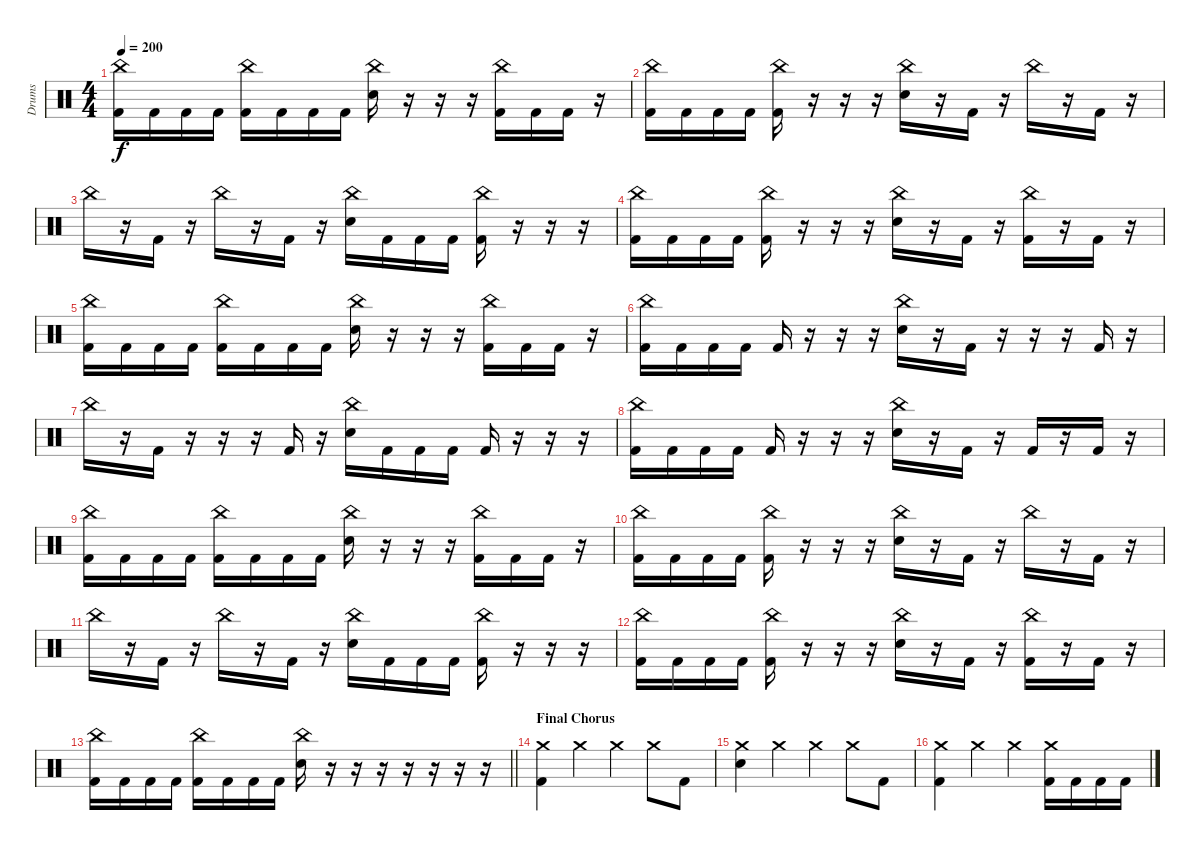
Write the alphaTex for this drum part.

\track ("Drums" "Drums") {instrument percussion}
\staff {score}
\articulation defaults
\ts (4 4)
\tempo 200
\clef neutral
\ks c
("China (hit)" "Kick (hit) 2").16{dy f} "Kick (hit) 2".16 "Kick (hit) 2".16 "Kick (hit) 2".16 ("China (hit)" "Kick (hit) 2").16 "Kick (hit) 2".16 "Kick (hit) 2".16 "Kick (hit) 2".16 ("China (hit)" "Electric Snare (hit)").16 r.16 r.16 r.16 ("China (hit)" "Kick (hit) 2").16 "Kick (hit) 2".16 "Kick (hit) 2".16 r.16 |
("China (hit)" "Kick (hit) 2").16 "Kick (hit) 2".16 "Kick (hit) 2".16 "Kick (hit) 2".16 ("China (hit)" "Kick (hit) 2").16 r.16 r.16 r.16 ("China (hit)" "Electric Snare (hit)").16 r.16 "Kick (hit) 2".16 r.16 "China (hit)".16 r.16 "Kick (hit) 2".16 r.16 |
"China (hit)".16 r.16 "Kick (hit) 2".16 r.16 "China (hit)".16 r.16 "Kick (hit) 2".16 r.16 ("China (hit)" "Electric Snare (hit)").16 "Kick (hit) 2".16 "Kick (hit) 2".16 "Kick (hit) 2".16 ("China (hit)" "Kick (hit) 2").16 r.16 r.16 r.16 |
("China (hit)" "Kick (hit) 2").16 "Kick (hit) 2".16 "Kick (hit) 2".16 "Kick (hit) 2".16 ("China (hit)" "Kick (hit) 2").16 r.16 r.16 r.16 ("China (hit)" "Electric Snare (hit)").16 r.16 "Kick (hit) 2".16 r.16 ("China (hit)" "Kick (hit) 2").16 r.16 "Kick (hit) 2".16 r.16 |
("China (hit)" "Kick (hit) 2").16 "Kick (hit) 2".16 "Kick (hit) 2".16 "Kick (hit) 2".16 ("China (hit)" "Kick (hit) 2").16 "Kick (hit) 2".16 "Kick (hit) 2".16 "Kick (hit) 2".16 ("China (hit)" "Electric Snare (hit)").16 r.16 r.16 r.16 ("China (hit)" "Kick (hit) 2").16 "Kick (hit) 2".16 "Kick (hit) 2".16 r.16 |
("China (hit)" "Kick (hit) 2").16 "Kick (hit) 2".16 "Kick (hit) 2".16 "Kick (hit) 2".16 "Kick (hit) 2".16 r.16 r.16 r.16 ("China (hit)" "Electric Snare (hit)").16 r.16 "Kick (hit) 2".16 r.16 r.16 r.16 "Kick (hit) 2".16 r.16 |
"China (hit)".16 r.16 "Kick (hit) 2".16 r.16 r.16 r.16 "Kick (hit) 2".16 r.16 ("China (hit)" "Electric Snare (hit)").16 "Kick (hit) 2".16 "Kick (hit) 2".16 "Kick (hit) 2".16 "Kick (hit) 2".16 r.16 r.16 r.16 |
("China (hit)" "Kick (hit) 2").16 "Kick (hit) 2".16 "Kick (hit) 2".16 "Kick (hit) 2".16 "Kick (hit) 2".16 r.16 r.16 r.16 ("China (hit)" "Electric Snare (hit)").16 r.16 "Kick (hit) 2".16 r.16 "Kick (hit) 2".16 r.16 "Kick (hit) 2".16 r.16 |
("China (hit)" "Kick (hit) 2").16 "Kick (hit) 2".16 "Kick (hit) 2".16 "Kick (hit) 2".16 ("China (hit)" "Kick (hit) 2").16 "Kick (hit) 2".16 "Kick (hit) 2".16 "Kick (hit) 2".16 ("China (hit)" "Electric Snare (hit)").16 r.16 r.16 r.16 ("China (hit)" "Kick (hit) 2").16 "Kick (hit) 2".16 "Kick (hit) 2".16 r.16 |
("China (hit)" "Kick (hit) 2").16 "Kick (hit) 2".16 "Kick (hit) 2".16 "Kick (hit) 2".16 ("China (hit)" "Kick (hit) 2").16 r.16 r.16 r.16 ("China (hit)" "Electric Snare (hit)").16 r.16 "Kick (hit) 2".16 r.16 "China (hit)".16 r.16 "Kick (hit) 2".16 r.16 |
"China (hit)".16 r.16 "Kick (hit) 2".16 r.16 "China (hit)".16 r.16 "Kick (hit) 2".16 r.16 ("China (hit)" "Electric Snare (hit)").16 "Kick (hit) 2".16 "Kick (hit) 2".16 "Kick (hit) 2".16 ("China (hit)" "Kick (hit) 2").16 r.16 r.16 r.16 |
("China (hit)" "Kick (hit) 2").16 "Kick (hit) 2".16 "Kick (hit) 2".16 "Kick (hit) 2".16 ("China (hit)" "Kick (hit) 2").16 r.16 r.16 r.16 ("China (hit)" "Electric Snare (hit)").16 r.16 "Kick (hit) 2".16 r.16 ("China (hit)" "Kick (hit) 2").16 r.16 "Kick (hit) 2".16 r.16 |
\barLineRight lightlight
("China (hit)" "Kick (hit) 2").16 "Kick (hit) 2".16 "Kick (hit) 2".16 "Kick (hit) 2".16 ("China (hit)" "Kick (hit) 2").16 "Kick (hit) 2".16 "Kick (hit) 2".16 "Kick (hit) 2".16 ("China (hit)" "Electric Snare (hit)").16 r.16 r.16 r.16 r.16 r.16 r.16 r.16 |
\section ("" "Final Chorus")
("Crash medium (hit)" "Kick (hit) 2").4 "Crash medium (hit)".4 "Crash medium (hit)".4 "Crash medium (hit)".8 "Kick (hit) 2".8 |
("Crash medium (hit)" "Electric Snare (hit)").4 "Crash medium (hit)".4 "Crash medium (hit)".4 "Crash medium (hit)".8 "Kick (hit) 2".8 |
("Crash medium (hit)" "Kick (hit) 2").4 "Crash medium (hit)".4 "Crash medium (hit)".4 ("Crash medium (hit)" "Kick (hit) 2").16 "Kick (hit) 2".16 "Kick (hit) 2".16 "Kick (hit) 2".16
